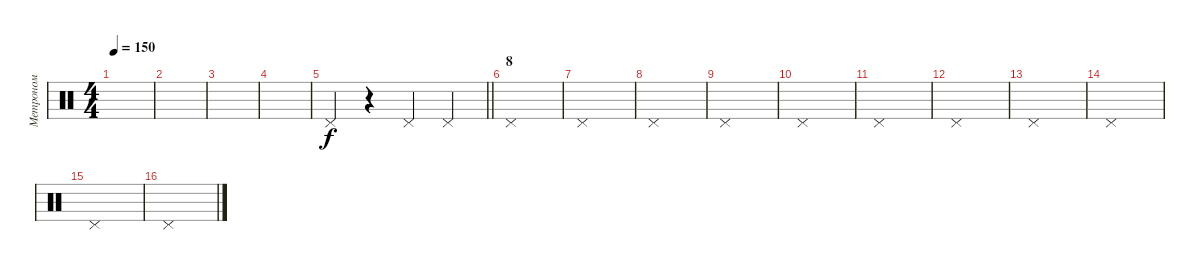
\track ("Метроном" "Метроном") {mute instrument percussion}
\staff {score}
\articulation defaults
\ts (4 4)
\tempo 150
\clef neutral
\ks c
|
|
|
|
\barLineRight lightlight "Pedal Hi-Hat (hit)".4
r.4 "Pedal Hi-Hat (hit)".4 "Pedal Hi-Hat (hit)".4 |
\section ("" "8")
"Pedal Hi-Hat (hit)".1 |
"Pedal Hi-Hat (hit)".1 |
"Pedal Hi-Hat (hit)".1 |
"Pedal Hi-Hat (hit)".1 |
"Pedal Hi-Hat (hit)".1 |
"Pedal Hi-Hat (hit)".1 |
"Pedal Hi-Hat (hit)".1 |
"Pedal Hi-Hat (hit)".1 |
"Pedal Hi-Hat (hit)".1 |
"Pedal Hi-Hat (hit)".1 |
"Pedal Hi-Hat (hit)".1
